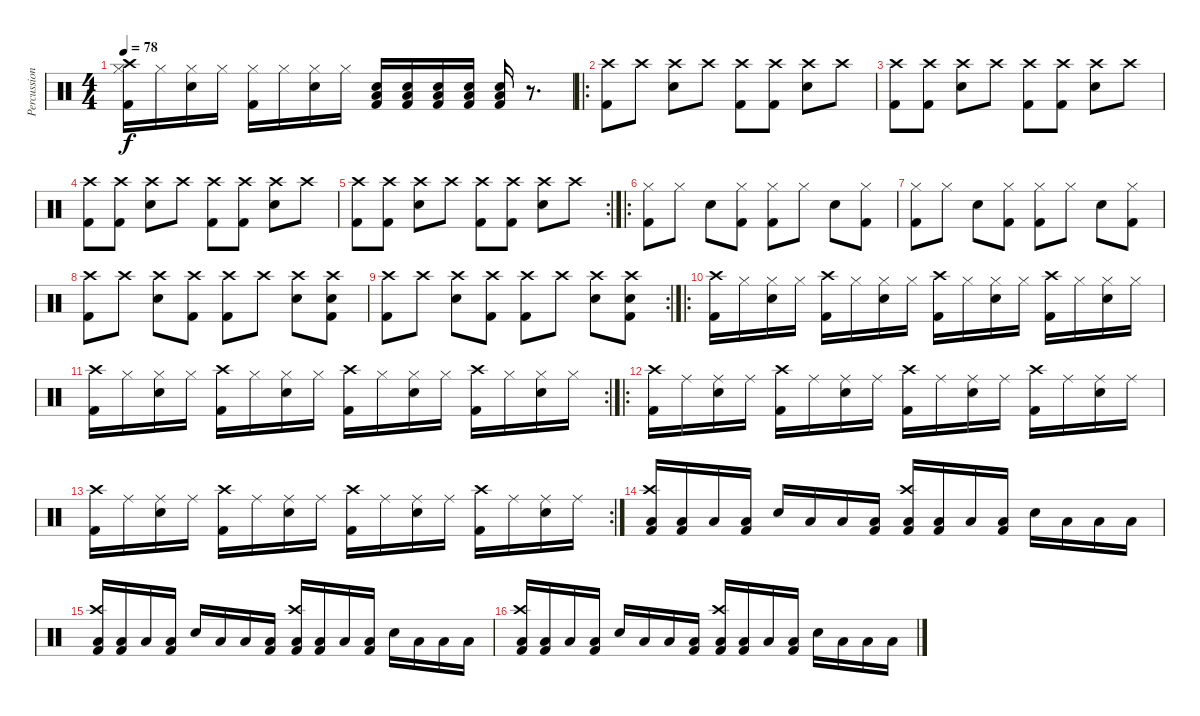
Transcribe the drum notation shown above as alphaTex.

\track ("Percussion" "Percussion") {instrument percussion}
\staff {score}
\articulation defaults
\ts (4 4)
\tempo 78
\clef neutral
\ks c
("Kick (hit) 2" "Crash high (hit)" "Hi-Hat (closed)").16{dy f} "Hi-Hat (closed)".16 ("Snare (hit) 2" "Hi-Hat (closed)").16 "Hi-Hat (closed)".16 ("Kick (hit) 2" "Hi-Hat (closed)").16 "Hi-Hat (closed)".16 ("Snare (hit) 2" "Hi-Hat (closed)").16 "Hi-Hat (closed)".16 ("Kick (hit) 2" "Snare (hit) 2" "Low Floor Tom (hit)").16 ("Kick (hit) 2" "Snare (hit) 2" "Low Floor Tom (hit)").16 ("Kick (hit) 2" "Snare (hit) 2" "Low Floor Tom (hit)").16 ("Kick (hit) 2" "Snare (hit) 2" "Low Floor Tom (hit)").16 ("Kick (hit) 2" "Snare (hit) 2" "Low Floor Tom (hit)").16 r.8{d} |
\ro
("Kick (hit) 2" "Crash high (hit)").8 "Crash high (hit)".8 ("Snare (hit) 2" "Crash high (hit)").8 "Crash high (hit)".8 ("Kick (hit) 2" "Crash high (hit)").8 ("Kick (hit) 2" "Crash high (hit)").8 ("Snare (hit) 2" "Crash high (hit)").8 "Crash high (hit)".8 |
("Kick (hit) 2" "Crash high (hit)").8 ("Kick (hit) 2" "Crash high (hit)").8 ("Snare (hit) 2" "Crash high (hit)").8 "Crash high (hit)".8 ("Kick (hit) 2" "Crash high (hit)").8 ("Kick (hit) 2" "Crash high (hit)").8 ("Snare (hit) 2" "Crash high (hit)").8 "Crash high (hit)".8 |
("Kick (hit) 2" "Crash high (hit)").8 ("Kick (hit) 2" "Crash high (hit)").8 ("Snare (hit) 2" "Crash high (hit)").8 "Crash high (hit)".8 ("Kick (hit) 2" "Crash high (hit)").8 ("Kick (hit) 2" "Crash high (hit)").8 ("Snare (hit) 2" "Crash high (hit)").8 "Crash high (hit)".8 |
\rc 2
("Kick (hit) 2" "Crash high (hit)").8 ("Kick (hit) 2" "Crash high (hit)").8 ("Snare (hit) 2" "Crash high (hit)").8 "Crash high (hit)".8 ("Kick (hit) 2" "Crash high (hit)").8 ("Kick (hit) 2" "Crash high (hit)").8 ("Snare (hit) 2" "Crash high (hit)").8 "Crash high (hit)".8 |
\ro
("Kick (hit) 2" "Hi-Hat (closed)").8 "Hi-Hat (closed)".8 "Snare (hit) 2".8 ("Kick (hit) 2" "Hi-Hat (closed)").8 ("Kick (hit) 2" "Hi-Hat (closed)").8 "Hi-Hat (closed)".8 "Snare (hit) 2".8 ("Kick (hit) 2" "Hi-Hat (closed)").8 |
("Kick (hit) 2" "Hi-Hat (closed)").8 "Hi-Hat (closed)".8 "Snare (hit) 2".8 ("Kick (hit) 2" "Hi-Hat (closed)").8 ("Kick (hit) 2" "Hi-Hat (closed)").8 "Hi-Hat (closed)".8 "Snare (hit) 2".8 ("Kick (hit) 2" "Hi-Hat (closed)").8 |
("Kick (hit) 2" "Crash high (hit)").8 "Crash high (hit)".8 ("Snare (hit) 2" "Crash high (hit)").8 ("Kick (hit) 2" "Crash high (hit)").8 ("Kick (hit) 2" "Crash high (hit)").8 "Crash high (hit)".8 ("Snare (hit) 2" "Crash high (hit)").8 ("Kick (hit) 2" "Snare (hit) 2" "Crash high (hit)").8 |
\rc 2
("Kick (hit) 2" "Crash high (hit)").8 "Crash high (hit)".8 ("Snare (hit) 2" "Crash high (hit)").8 ("Kick (hit) 2" "Crash high (hit)").8 ("Kick (hit) 2" "Crash high (hit)").8 "Crash high (hit)".8 ("Snare (hit) 2" "Crash high (hit)").8 ("Kick (hit) 2" "Snare (hit) 2" "Crash high (hit)").8 |
\ro
("Kick (hit) 2" "Crash high (hit)").16 "Hi-Hat (closed)".16 ("Snare (hit) 2" "Hi-Hat (closed)").16 "Hi-Hat (closed)".16 ("Kick (hit) 2" "Crash high (hit)").16 "Hi-Hat (closed)".16 ("Snare (hit) 2" "Hi-Hat (closed)").16 "Hi-Hat (closed)".16 ("Kick (hit) 2" "Crash high (hit)").16 "Hi-Hat (closed)".16 ("Snare (hit) 2" "Hi-Hat (closed)").16 "Hi-Hat (closed)".16 ("Kick (hit) 2" "Crash high (hit)").16 "Hi-Hat (closed)".16 ("Snare (hit) 2" "Hi-Hat (closed)").16 "Hi-Hat (closed)".16 |
\rc 2
("Kick (hit) 2" "Crash high (hit)").16 "Hi-Hat (closed)".16 ("Snare (hit) 2" "Hi-Hat (closed)").16 "Hi-Hat (closed)".16 ("Kick (hit) 2" "Crash high (hit)").16 "Hi-Hat (closed)".16 ("Snare (hit) 2" "Hi-Hat (closed)").16 "Hi-Hat (closed)".16 ("Kick (hit) 2" "Crash high (hit)").16 "Hi-Hat (closed)".16 ("Snare (hit) 2" "Hi-Hat (closed)").16 "Hi-Hat (closed)".16 ("Kick (hit) 2" "Crash high (hit)").16 "Hi-Hat (closed)".16 ("Snare (hit) 2" "Hi-Hat (closed)").16 "Hi-Hat (closed)".16 |
\ro
("Kick (hit) 2" "Crash high (hit)").16 "Ride (middle)".16 ("Snare (hit) 2" "Ride (middle)").16 "Ride (middle)".16 ("Kick (hit) 2" "Crash high (hit)").16 "Ride (middle)".16 ("Snare (hit) 2" "Ride (middle)").16 "Ride (middle)".16 ("Kick (hit) 2" "Crash high (hit)").16 "Ride (middle)".16 ("Snare (hit) 2" "Ride (middle)").16 "Ride (middle)".16 ("Kick (hit) 2" "Crash high (hit)").16 "Ride (middle)".16 ("Snare (hit) 2" "Ride (middle)").16 "Ride (middle)".16 |
\rc 2
("Kick (hit) 2" "Crash high (hit)").16 "Ride (middle)".16 ("Snare (hit) 2" "Ride (middle)").16 "Ride (middle)".16 ("Kick (hit) 2" "Crash high (hit)").16 "Ride (middle)".16 ("Snare (hit) 2" "Ride (middle)").16 "Ride (middle)".16 ("Kick (hit) 2" "Crash high (hit)").16 "Ride (middle)".16 ("Snare (hit) 2" "Ride (middle)").16 "Ride (middle)".16 ("Kick (hit) 2" "Crash high (hit)").16 "Ride (middle)".16 ("Snare (hit) 2" "Ride (middle)").16 "Ride (middle)".16 |
("Crash high (hit)" "Low Floor Tom (hit)" "Kick (hit) 2").16 ("Low Floor Tom (hit)" "Kick (hit) 2").16 "Low Floor Tom (hit)".16 ("Low Floor Tom (hit)" "Kick (hit) 2").16 "Snare (hit) 2".16 "Low Floor Tom (hit)".16 "Low Floor Tom (hit)".16 ("Low Floor Tom (hit)" "Kick (hit) 2").16 ("Crash high (hit)" "Low Floor Tom (hit)" "Kick (hit) 2").16 ("Low Floor Tom (hit)" "Kick (hit) 2").16 "Low Floor Tom (hit)".16 ("Low Floor Tom (hit)" "Kick (hit) 2").16 "Snare (hit) 2".16 "Low Floor Tom (hit)".16 "Low Floor Tom (hit)".16 "Low Floor Tom (hit)".16 |
("Crash high (hit)" "Low Floor Tom (hit)" "Kick (hit) 2").16 ("Low Floor Tom (hit)" "Kick (hit) 2").16 "Low Floor Tom (hit)".16 ("Low Floor Tom (hit)" "Kick (hit) 2").16 "Snare (hit) 2".16 "Low Floor Tom (hit)".16 "Low Floor Tom (hit)".16 ("Low Floor Tom (hit)" "Kick (hit) 2").16 ("Crash high (hit)" "Low Floor Tom (hit)" "Kick (hit) 2").16 ("Low Floor Tom (hit)" "Kick (hit) 2").16 "Low Floor Tom (hit)".16 ("Low Floor Tom (hit)" "Kick (hit) 2").16 "Snare (hit) 2".16 "Low Floor Tom (hit)".16 "Low Floor Tom (hit)".16 "Low Floor Tom (hit)".16 |
("Crash high (hit)" "Low Floor Tom (hit)" "Kick (hit) 2").16 ("Low Floor Tom (hit)" "Kick (hit) 2").16 "Low Floor Tom (hit)".16 ("Low Floor Tom (hit)" "Kick (hit) 2").16 "Snare (hit) 2".16 "Low Floor Tom (hit)".16 "Low Floor Tom (hit)".16 ("Low Floor Tom (hit)" "Kick (hit) 2").16 ("Crash high (hit)" "Low Floor Tom (hit)" "Kick (hit) 2").16 ("Low Floor Tom (hit)" "Kick (hit) 2").16 "Low Floor Tom (hit)".16 ("Low Floor Tom (hit)" "Kick (hit) 2").16 "Snare (hit) 2".16 "Low Floor Tom (hit)".16 "Low Floor Tom (hit)".16 "Low Floor Tom (hit)".16
